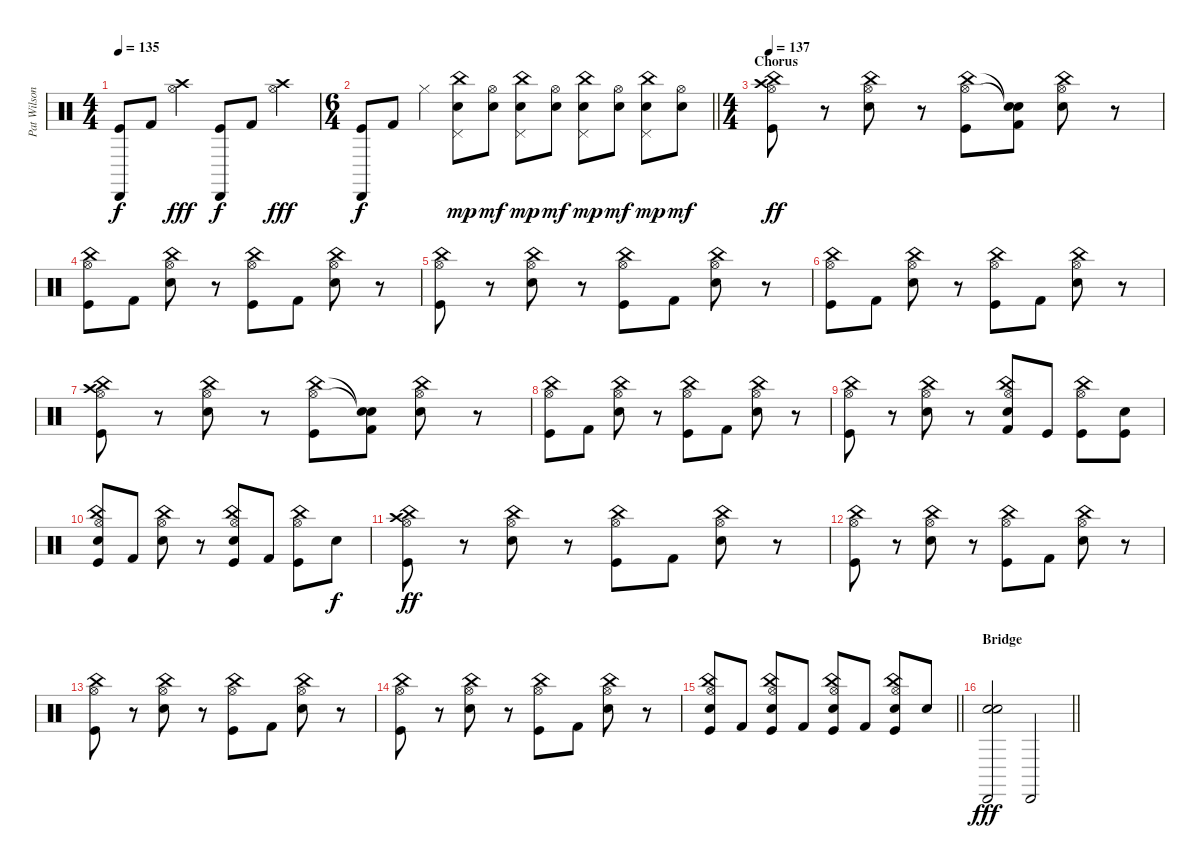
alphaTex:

\track ("Pat Wilson" "Pat Wilson") {instrument percussion}
\staff {score}
\articulation defaults
\ts (4 4)
\tempo 135
\clef neutral
\ks c
("Cabasa (hit)" "Kick (hit)").8{dy f} "Kick (hit) 2".8 ("Hi-Hat (open)" "Crash high (hit)").4{dy fff} ("Cabasa (hit)" "Kick (hit)").8{dy f} "Kick (hit) 2".8 ("Hi-Hat (open)" "Crash high (hit)").4{dy fff} |
\ts (6 4)
\barLineRight lightlight
("Cabasa (hit)" "Kick (hit)").8{dy f} "Kick (hit) 2".8 "Hi-Hat (closed)".4 ("China (hit)" "Pedal Hi-Hat (hit)" "Snare (hit) 2").8{dy mp} ("Hi-Hat (open)" "Electric Snare (hit)").8{dy mf} ("China (hit)" "Pedal Hi-Hat (hit)" "Snare (hit) 2").8{dy mp} ("Hi-Hat (open)" "Electric Snare (hit)").8{dy mf} ("China (hit)" "Pedal Hi-Hat (hit)" "Snare (hit) 2").8{dy mp} ("Hi-Hat (open)" "Electric Snare (hit)").8{dy mf} ("China (hit)" "Pedal Hi-Hat (hit)" "Snare (hit) 2").8{dy mp} ("Hi-Hat (open)" "Electric Snare (hit)").8{dy mf} |
\ts (4 4)
\section ("" "Chorus")
\tempo 137
("Hi-Hat (open)" "China (hit)" "Crash high (hit)" "Kick (hit)").8{dy ff} r.8 ("Hi-Hat (open)" "China (hit)" "Snare (hit) 2").8 r.8 ("Hi-Hat (open)" "China (hit)" "Kick (hit)").8 ("Snare (hit)"{t} "Snare (hit)"{t} "Kick (hit) 2").8 ("Hi-Hat (open)" "China (hit)" "Snare (hit) 2").8 r.8 |
("Hi-Hat (open)" "China (hit)" "Kick (hit)").8 "Kick (hit) 2".8 ("Hi-Hat (open)" "China (hit)" "Snare (hit) 2").8 r.8 ("Hi-Hat (open)" "China (hit)" "Kick (hit)").8 "Kick (hit) 2".8 ("Hi-Hat (open)" "China (hit)" "Snare (hit) 2").8 r.8 |
("Hi-Hat (open)" "China (hit)" "Kick (hit)").8 r.8 ("Hi-Hat (open)" "China (hit)" "Snare (hit) 2").8 r.8 ("Hi-Hat (open)" "China (hit)" "Kick (hit)").8 "Kick (hit) 2".8 ("Hi-Hat (open)" "China (hit)" "Snare (hit) 2").8 r.8 |
("Hi-Hat (open)" "China (hit)" "Kick (hit)").8 "Kick (hit) 2".8 ("Hi-Hat (open)" "China (hit)" "Snare (hit) 2").8 r.8 ("Hi-Hat (open)" "China (hit)" "Kick (hit)").8 "Kick (hit) 2".8 ("Hi-Hat (open)" "China (hit)" "Snare (hit) 2").8 r.8 |
("Hi-Hat (open)" "China (hit)" "Crash high (hit)" "Kick (hit)").8 r.8 ("Hi-Hat (open)" "China (hit)" "Snare (hit) 2").8 r.8 ("Hi-Hat (open)" "China (hit)" "Kick (hit)").8 ("Snare (hit)"{t} "Snare (hit)"{t} "Kick (hit) 2").8 ("Hi-Hat (open)" "China (hit)" "Snare (hit) 2").8 r.8 |
("Hi-Hat (open)" "China (hit)" "Kick (hit)").8 "Kick (hit) 2".8 ("Hi-Hat (open)" "China (hit)" "Snare (hit) 2").8 r.8 ("Hi-Hat (open)" "China (hit)" "Kick (hit)").8 "Kick (hit) 2".8 ("Hi-Hat (open)" "China (hit)" "Snare (hit) 2").8 r.8 |
("Hi-Hat (open)" "China (hit)" "Kick (hit)").8 r.8 ("Hi-Hat (open)" "China (hit)" "Snare (hit) 2").8 r.8 ("Hi-Hat (open)" "China (hit)" "Snare (hit) 2" "Kick (hit) 2").8 "Kick (hit)".8 ("Hi-Hat (open)" "China (hit)" "Kick (hit)").8 ("Snare (hit) 2" "Kick (hit)").8 |
("Hi-Hat (open)" "China (hit)" "Snare (hit) 2" "Kick (hit)").8 "Kick (hit) 2".8 ("Hi-Hat (open)" "China (hit)" "Snare (hit) 2").8 r.8 ("Hi-Hat (open)" "China (hit)" "Snare (hit) 2" "Kick (hit)").8 "Kick (hit) 2".8 ("Hi-Hat (open)" "China (hit)" "Kick (hit)").8 "Snare (hit) 2".8{dy f} |
("Hi-Hat (open)" "China (hit)" "Crash high (hit)" "Kick (hit)").8{dy ff} r.8 ("Hi-Hat (open)" "China (hit)" "Snare (hit) 2").8 r.8 ("Hi-Hat (open)" "China (hit)" "Kick (hit)").8 "Kick (hit) 2".8 ("Hi-Hat (open)" "China (hit)" "Snare (hit) 2").8 r.8 |
("Hi-Hat (open)" "China (hit)" "Kick (hit)").8 r.8 ("Hi-Hat (open)" "China (hit)" "Snare (hit) 2").8 r.8 ("Hi-Hat (open)" "China (hit)" "Kick (hit)").8 "Kick (hit) 2".8 ("Hi-Hat (open)" "China (hit)" "Snare (hit) 2").8 r.8 |
("Hi-Hat (open)" "China (hit)" "Kick (hit)").8 r.8 ("Hi-Hat (open)" "China (hit)" "Snare (hit) 2").8 r.8 ("Hi-Hat (open)" "China (hit)" "Kick (hit)").8 "Kick (hit) 2".8 ("Hi-Hat (open)" "China (hit)" "Snare (hit) 2").8 r.8 |
("Hi-Hat (open)" "China (hit)" "Kick (hit)").8 r.8 ("Hi-Hat (open)" "China (hit)" "Snare (hit) 2").8 r.8 ("Hi-Hat (open)" "China (hit)" "Kick (hit)").8 "Kick (hit) 2".8 ("Hi-Hat (open)" "China (hit)" "Snare (hit) 2").8 r.8 |
\barLineRight lightlight
("Hi-Hat (open)" "China (hit)" "Snare (hit) 2" "Kick (hit)").8 "Kick (hit) 2".8 ("Hi-Hat (open)" "China (hit)" "Snare (hit) 2" "Kick (hit)").8 "Kick (hit) 2".8 ("Hi-Hat (open)" "China (hit)" "Snare (hit) 2" "Kick (hit)").8 "Kick (hit) 2".8 ("Hi-Hat (open)" "China (hit)" "Snare (hit) 2" "Kick (hit)").8 "Snare (hit)".8 |
\section ("" "Bridge")
\barLineRight lightlight
("Cabasa (hit)" "Snare (hit) 2" "Electric Snare (hit)").2{dy fff} "Cabasa (hit)".2
